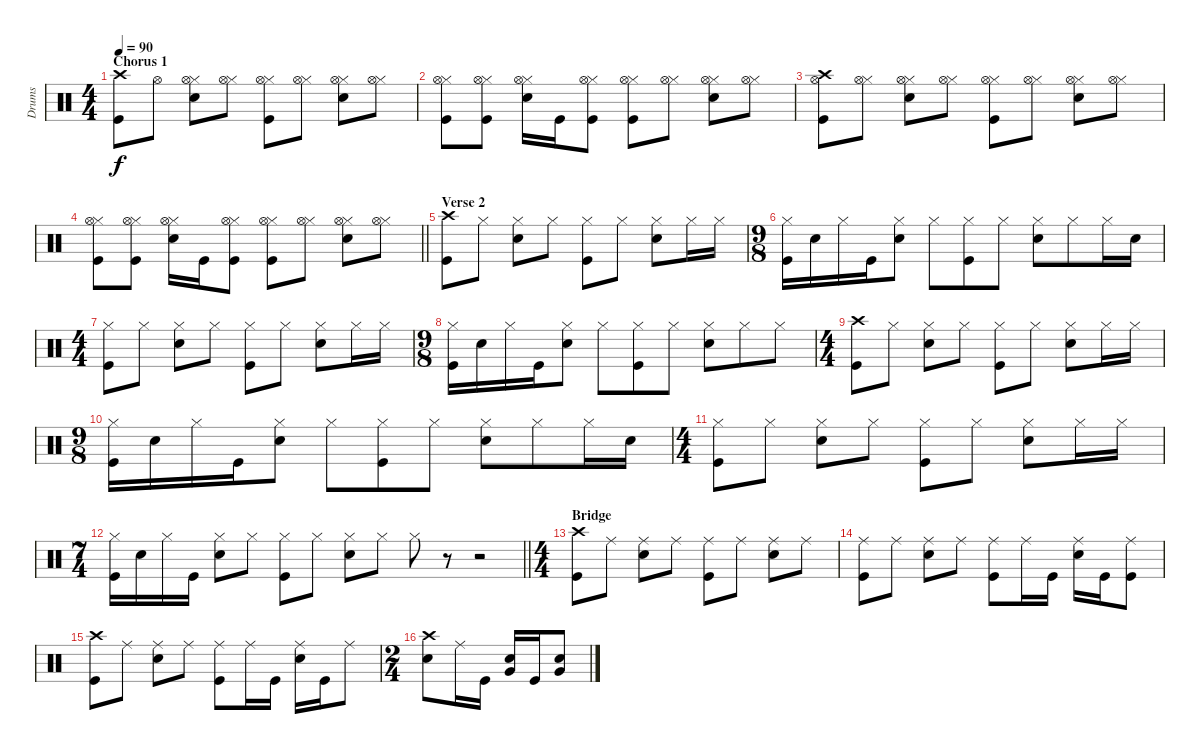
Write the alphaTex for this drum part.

\track ("Drums" "Drums") {instrument percussion}
\staff {score}
\articulation defaults
\ts (4 4)
\section ("" "Chorus 1")
\tempo 90
\clef neutral
\ks c
("Crash high (hit)" "Kick (hit)").8{dy f} "Hi-Hat (open)".8 ("Snare (hit) 2" "Hi-Hat (closed)" "Hi-Hat (open)").8 ("Hi-Hat (closed)" "Hi-Hat (open)").8 ("Hi-Hat (closed)" "Kick (hit)" "Hi-Hat (open)").8 ("Hi-Hat (closed)" "Hi-Hat (open)").8 ("Hi-Hat (closed)" "Snare (hit) 2" "Hi-Hat (open)").8 ("Hi-Hat (closed)" "Hi-Hat (open)").8 |
("Kick (hit)" "Hi-Hat (closed)" "Hi-Hat (open)").8 ("Kick (hit)" "Hi-Hat (closed)" "Hi-Hat (open)").8 ("Snare (hit) 2" "Hi-Hat (closed)" "Hi-Hat (open)").16 "Kick (hit)".16 ("Hi-Hat (closed)" "Kick (hit)" "Hi-Hat (open)").8 ("Kick (hit)" "Hi-Hat (closed)" "Hi-Hat (open)").8 ("Hi-Hat (closed)" "Hi-Hat (open)").8 ("Snare (hit) 2" "Hi-Hat (closed)" "Hi-Hat (open)").8 ("Hi-Hat (closed)" "Hi-Hat (open)").8 |
("Crash high (hit)" "Kick (hit)" "Hi-Hat (open)").8 ("Hi-Hat (closed)" "Hi-Hat (open)").8 ("Snare (hit) 2" "Hi-Hat (closed)" "Hi-Hat (open)").8 ("Hi-Hat (closed)" "Hi-Hat (open)").8 ("Hi-Hat (closed)" "Kick (hit)" "Hi-Hat (open)").8 ("Hi-Hat (closed)" "Hi-Hat (open)").8 ("Hi-Hat (closed)" "Snare (hit) 2" "Hi-Hat (open)").8 ("Hi-Hat (closed)" "Hi-Hat (open)").8 |
\barLineRight lightlight
("Kick (hit)" "Hi-Hat (closed)" "Hi-Hat (open)").8 ("Kick (hit)" "Hi-Hat (closed)" "Hi-Hat (open)").8 ("Snare (hit) 2" "Hi-Hat (closed)" "Hi-Hat (open)").16 "Kick (hit)".16 ("Hi-Hat (closed)" "Kick (hit)" "Hi-Hat (open)").8 ("Kick (hit)" "Hi-Hat (closed)" "Hi-Hat (open)").8 ("Hi-Hat (closed)" "Hi-Hat (open)").8 ("Snare (hit) 2" "Hi-Hat (closed)" "Hi-Hat (open)").8 ("Hi-Hat (closed)" "Hi-Hat (open)").8 |
\section ("" "Verse 2")
("Crash high (hit)" "Kick (hit)").8 "Hi-Hat (closed)".8 ("Snare (hit) 2" "Hi-Hat (closed)").8 "Hi-Hat (closed)".8 ("Kick (hit)" "Hi-Hat (closed)").8 "Hi-Hat (closed)".8 ("Snare (hit) 2" "Hi-Hat (closed)").8 "Hi-Hat (closed)".16 "Hi-Hat (closed)".16 |
\ts (9 8)
("Kick (hit)" "Hi-Hat (closed)").16 "Snare (hit) 2".16 "Hi-Hat (closed)".16 "Kick (hit)".16 ("Snare (hit) 2" "Hi-Hat (closed)").8 "Hi-Hat (closed)".8 ("Kick (hit)" "Hi-Hat (closed)").8 "Hi-Hat (closed)".8 ("Snare (hit) 2" "Hi-Hat (closed)").8 "Hi-Hat (closed)".8 "Hi-Hat (closed)".16 "Snare (hit) 2".16 |
\ts (4 4)
("Kick (hit)" "Hi-Hat (closed)").8 "Hi-Hat (closed)".8 ("Snare (hit) 2" "Hi-Hat (closed)").8 "Hi-Hat (closed)".8 ("Kick (hit)" "Hi-Hat (closed)").8 "Hi-Hat (closed)".8 ("Snare (hit) 2" "Hi-Hat (closed)").8 "Hi-Hat (closed)".16 "Hi-Hat (closed)".16 |
\ts (9 8)
("Kick (hit)" "Hi-Hat (closed)").16 "Snare (hit) 2".16 "Hi-Hat (closed)".16 "Kick (hit)".16 ("Snare (hit) 2" "Hi-Hat (closed)").8 "Hi-Hat (closed)".8 ("Kick (hit)" "Hi-Hat (closed)").8 "Hi-Hat (closed)".8 ("Snare (hit) 2" "Hi-Hat (closed)").8 "Hi-Hat (closed)".8 "Hi-Hat (closed)".8 |
\ts (4 4)
("Crash high (hit)" "Kick (hit)").8 "Hi-Hat (closed)".8 ("Snare (hit) 2" "Hi-Hat (closed)").8 "Hi-Hat (closed)".8 ("Kick (hit)" "Hi-Hat (closed)").8 "Hi-Hat (closed)".8 ("Snare (hit) 2" "Hi-Hat (closed)").8 "Hi-Hat (closed)".16 "Hi-Hat (closed)".16 |
\ts (9 8)
("Kick (hit)" "Hi-Hat (closed)").16 "Snare (hit) 2".16 "Hi-Hat (closed)".16 "Kick (hit)".16 ("Snare (hit) 2" "Hi-Hat (closed)").8 "Hi-Hat (closed)".8 ("Kick (hit)" "Hi-Hat (closed)").8 "Hi-Hat (closed)".8 ("Snare (hit) 2" "Hi-Hat (closed)").8 "Hi-Hat (closed)".8 "Hi-Hat (closed)".16 "Snare (hit) 2".16 |
\ts (4 4)
("Kick (hit)" "Hi-Hat (closed)").8 "Hi-Hat (closed)".8 ("Snare (hit) 2" "Hi-Hat (closed)").8 "Hi-Hat (closed)".8 ("Kick (hit)" "Hi-Hat (closed)").8 "Hi-Hat (closed)".8 ("Snare (hit) 2" "Hi-Hat (closed)").8 "Hi-Hat (closed)".16 "Hi-Hat (closed)".16 |
\ts (7 4)
\barLineRight lightlight
("Kick (hit)" "Hi-Hat (closed)").16 "Snare (hit) 2".16 "Hi-Hat (closed)".16 "Kick (hit)".16 ("Snare (hit) 2" "Hi-Hat (closed)").8 "Hi-Hat (closed)".8 ("Kick (hit)" "Hi-Hat (closed)").8 "Hi-Hat (closed)".8 ("Snare (hit) 2" "Hi-Hat (closed)").8 "Hi-Hat (closed)".8 "Hi-Hat (closed)".8 r.8 r.2 |
\ts (4 4)
\section ("" "Bridge")
("Crash high (hit)" "Kick (hit)").8 "Ride (middle)".8 ("Snare (hit) 2" "Ride (middle)").8 "Ride (middle)".8 ("Kick (hit)" "Ride (middle)").8 "Ride (middle)".8 ("Snare (hit) 2" "Ride (middle)").8 "Ride (middle)".8 |
("Ride (middle)" "Kick (hit)").8 "Ride (middle)".8 ("Ride (middle)" "Snare (hit) 2").8 "Ride (middle)".8 ("Ride (middle)" "Kick (hit)").8 "Ride (middle)".16 "Kick (hit)".16 ("Ride (middle)" "Snare (hit) 2").16 "Kick (hit)".16 ("Kick (hit)" "Ride (middle)").8 |
("Crash high (hit)" "Kick (hit)").8 "Ride (middle)".8 ("Snare (hit) 2" "Ride (middle)").8 "Ride (middle)".8 ("Kick (hit)" "Ride (middle)").8 "Ride (middle)".16 "Kick (hit)".16 ("Snare (hit) 2" "Ride (middle)").16 "Kick (hit)".16 "Ride (middle)".8 |
\ts (2 4)
("Crash high (hit)" "Snare (hit) 2").8 "Ride (middle)".16 "Kick (hit)".16 ("Very Low Tom (hit)" "Snare (hit) 2").16 "Kick (hit)".16 ("Snare (hit) 2" "Very Low Tom (hit)").8
